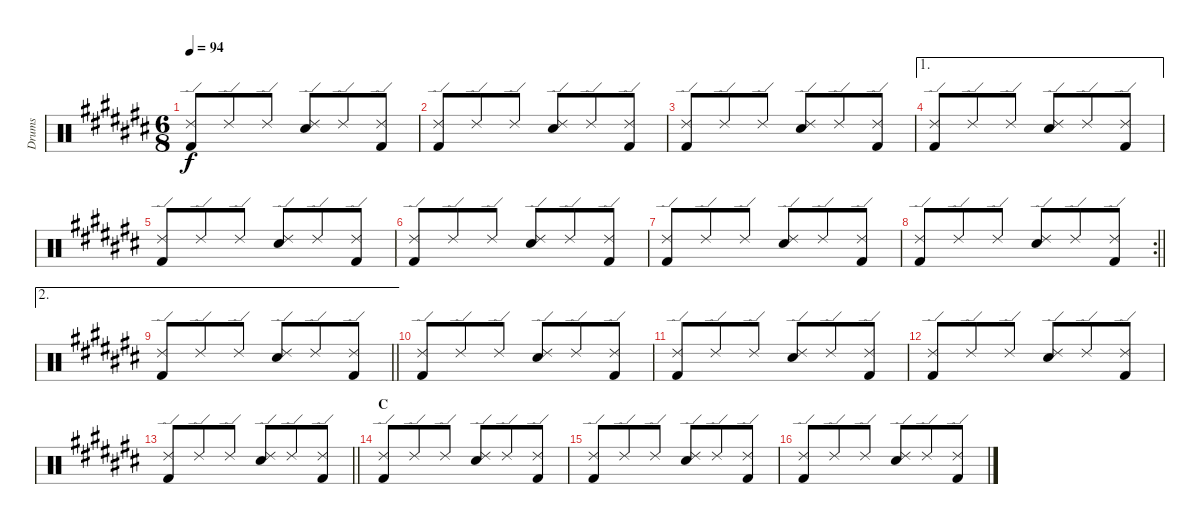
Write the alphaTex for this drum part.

\track ("Drums" "Drums") {instrument percussion}
\staff {score}
\articulation defaults
\ts (6 8)
\tempo 94
\clef neutral
\ks c#
("Ride (edge) 2" "Kick (hit) 2").8{dy f} "Ride (edge) 2".8 "Ride (edge) 2".8 ("Ride (edge) 2" "Snare (hit) 2").8 "Ride (edge) 2".8 ("Ride (edge) 2" "Kick (hit) 2").8 |
("Ride (edge) 2" "Kick (hit) 2").8 "Ride (edge) 2".8 "Ride (edge) 2".8 ("Ride (edge) 2" "Snare (hit) 2").8 "Ride (edge) 2".8 ("Ride (edge) 2" "Kick (hit) 2").8 |
("Ride (edge) 2" "Kick (hit) 2").8 "Ride (edge) 2".8 "Ride (edge) 2".8 ("Ride (edge) 2" "Snare (hit) 2").8 "Ride (edge) 2".8 ("Ride (edge) 2" "Kick (hit) 2").8 |
\ae 1
("Ride (edge) 2" "Kick (hit) 2").8 "Ride (edge) 2".8 "Ride (edge) 2".8 ("Ride (edge) 2" "Snare (hit) 2").8 "Ride (edge) 2".8 ("Ride (edge) 2" "Kick (hit) 2").8 |
("Ride (edge) 2" "Kick (hit) 2").8 "Ride (edge) 2".8 "Ride (edge) 2".8 ("Ride (edge) 2" "Snare (hit) 2").8 "Ride (edge) 2".8 ("Ride (edge) 2" "Kick (hit) 2").8 |
("Ride (edge) 2" "Kick (hit) 2").8 "Ride (edge) 2".8 "Ride (edge) 2".8 ("Ride (edge) 2" "Snare (hit) 2").8 "Ride (edge) 2".8 ("Ride (edge) 2" "Kick (hit) 2").8 |
("Ride (edge) 2" "Kick (hit) 2").8 "Ride (edge) 2".8 "Ride (edge) 2".8 ("Ride (edge) 2" "Snare (hit) 2").8 "Ride (edge) 2".8 ("Ride (edge) 2" "Kick (hit) 2").8 |
\rc 2
\barLineRight lightlight
("Ride (edge) 2" "Kick (hit) 2").8 "Ride (edge) 2".8 "Ride (edge) 2".8 ("Ride (edge) 2" "Snare (hit) 2").8 "Ride (edge) 2".8 ("Ride (edge) 2" "Kick (hit) 2").8 |
\ae 2
\barLineRight lightlight
("Ride (edge) 2" "Kick (hit) 2").8 "Ride (edge) 2".8 "Ride (edge) 2".8 ("Ride (edge) 2" "Snare (hit) 2").8 "Ride (edge) 2".8 ("Ride (edge) 2" "Kick (hit) 2").8 |
("Ride (edge) 2" "Kick (hit) 2").8 "Ride (edge) 2".8 "Ride (edge) 2".8 ("Ride (edge) 2" "Snare (hit) 2").8 "Ride (edge) 2".8 ("Ride (edge) 2" "Kick (hit) 2").8 |
("Ride (edge) 2" "Kick (hit) 2").8 "Ride (edge) 2".8 "Ride (edge) 2".8 ("Ride (edge) 2" "Snare (hit) 2").8 "Ride (edge) 2".8 ("Ride (edge) 2" "Kick (hit) 2").8 |
("Ride (edge) 2" "Kick (hit) 2").8 "Ride (edge) 2".8 "Ride (edge) 2".8 ("Ride (edge) 2" "Snare (hit) 2").8 "Ride (edge) 2".8 ("Ride (edge) 2" "Kick (hit) 2").8 |
\barLineRight lightlight
("Ride (edge) 2" "Kick (hit) 2").8 "Ride (edge) 2".8 "Ride (edge) 2".8 ("Ride (edge) 2" "Snare (hit) 2").8 "Ride (edge) 2".8 ("Ride (edge) 2" "Kick (hit) 2").8 |
\section ("" "C")
("Ride (edge) 2" "Kick (hit) 2").8 "Ride (edge) 2".8 "Ride (edge) 2".8 ("Ride (edge) 2" "Snare (hit) 2").8 "Ride (edge) 2".8 ("Ride (edge) 2" "Kick (hit) 2").8 |
("Ride (edge) 2" "Kick (hit) 2").8 "Ride (edge) 2".8 "Ride (edge) 2".8 ("Ride (edge) 2" "Snare (hit) 2").8 "Ride (edge) 2".8 ("Ride (edge) 2" "Kick (hit) 2").8 |
("Ride (edge) 2" "Kick (hit) 2").8 "Ride (edge) 2".8 "Ride (edge) 2".8 ("Ride (edge) 2" "Snare (hit) 2").8 "Ride (edge) 2".8 ("Ride (edge) 2" "Kick (hit) 2").8
